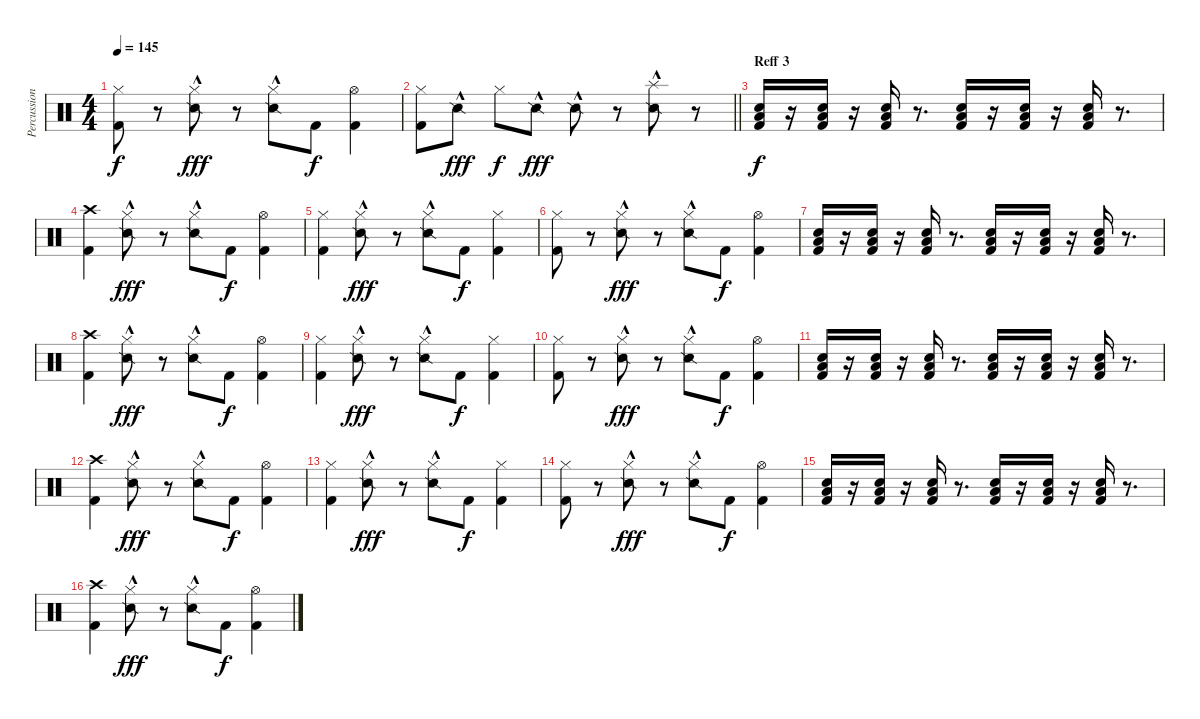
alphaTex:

\track ("Percussion 1" "Percussion") {instrument percussion}
\staff {score}
\articulation defaults
\ts (4 4)
\tempo 145
\clef neutral
\ks c
("Hi-Hat (closed)" "Kick (hit) 2").8{dy f} r.8 ("Hi-Hat (closed)" "Snare (side stick) 2"{hac}).8{dy fff} r.8 ("Hi-Hat (closed)" "Snare (side stick) 2"{hac}).8 "Kick (hit) 2".8{dy f} ("Hi-Hat (open)" "Kick (hit) 2").4 |
\barLineRight lightlight
("Hi-Hat (closed)" "Kick (hit) 2").8 "Snare (side stick) 2"{hac}.8{dy fff} "Hi-Hat (closed)".8{dy f} "Snare (side stick) 2"{hac}.8{dy fff} "Snare (side stick) 2"{hac}.8 r.8 ("Snare (side stick) 2"{hac} "Splash (hit)").8 r.8 |
\section ("" "Reff 3")
("Low Tom (hit)" "Electric Snare (hit)" "Kick (hit) 2").16{dy f} r.16 ("Low Tom (hit)" "Electric Snare (hit)" "Kick (hit) 2").16 r.16 ("Low Tom (hit)" "Electric Snare (hit)" "Kick (hit) 2").16 r.8{d} ("Low Tom (hit)" "Electric Snare (hit)" "Kick (hit) 2").16 r.16 ("Low Tom (hit)" "Electric Snare (hit)" "Kick (hit) 2").16 r.16 ("Low Tom (hit)" "Electric Snare (hit)" "Kick (hit) 2").16 r.8{d} |
("Crash high (hit)" "Kick (hit) 2").4 ("Hi-Hat (closed)" "Snare (side stick) 2"{hac}).8{dy fff} r.8 ("Hi-Hat (closed)" "Snare (side stick) 2"{hac}).8 "Kick (hit) 2".8{dy f} ("Hi-Hat (open)" "Kick (hit) 2").4 |
("Hi-Hat (closed)" "Kick (hit) 2").4 ("Hi-Hat (closed)" "Snare (side stick) 2"{hac}).8{dy fff} r.8 ("Hi-Hat (closed)" "Snare (side stick) 2"{hac}).8 "Kick (hit) 2".8{dy f} ("Hi-Hat (closed)" "Kick (hit) 2").4 |
("Hi-Hat (closed)" "Kick (hit) 2").8 r.8 ("Hi-Hat (closed)" "Snare (side stick) 2"{hac}).8{dy fff} r.8 ("Hi-Hat (closed)" "Snare (side stick) 2"{hac}).8 "Kick (hit) 2".8{dy f} ("Hi-Hat (open)" "Kick (hit) 2").4 |
("Low Tom (hit)" "Electric Snare (hit)" "Kick (hit) 2").16 r.16 ("Low Tom (hit)" "Electric Snare (hit)" "Kick (hit) 2").16 r.16 ("Low Tom (hit)" "Electric Snare (hit)" "Kick (hit) 2").16 r.8{d} ("Low Floor Tom (hit)" "Electric Snare (hit)" "Kick (hit) 2").16 r.16 ("Low Floor Tom (hit)" "Electric Snare (hit)" "Kick (hit) 2").16 r.16 ("Low Floor Tom (hit)" "Electric Snare (hit)" "Kick (hit) 2").16 r.8{d} |
("Crash high (hit)" "Kick (hit) 2").4 ("Hi-Hat (closed)" "Snare (side stick) 2"{hac}).8{dy fff} r.8 ("Hi-Hat (closed)" "Snare (side stick) 2"{hac}).8 "Kick (hit) 2".8{dy f} ("Hi-Hat (open)" "Kick (hit) 2").4 |
("Hi-Hat (closed)" "Kick (hit) 2").4 ("Hi-Hat (closed)" "Snare (side stick) 2"{hac}).8{dy fff} r.8 ("Hi-Hat (closed)" "Snare (side stick) 2"{hac}).8 "Kick (hit) 2".8{dy f} ("Hi-Hat (closed)" "Kick (hit) 2").4 |
("Hi-Hat (closed)" "Kick (hit) 2").8 r.8 ("Hi-Hat (closed)" "Snare (side stick) 2"{hac}).8{dy fff} r.8 ("Hi-Hat (closed)" "Snare (side stick) 2"{hac}).8 "Kick (hit) 2".8{dy f} ("Hi-Hat (open)" "Kick (hit) 2").4 |
("Low Tom (hit)" "Electric Snare (hit)" "Kick (hit) 2").16 r.16 ("Low Tom (hit)" "Electric Snare (hit)" "Kick (hit) 2").16 r.16 ("Low Tom (hit)" "Electric Snare (hit)" "Kick (hit) 2").16 r.8{d} ("Low Tom (hit)" "Electric Snare (hit)" "Kick (hit) 2").16 r.16 ("Low Tom (hit)" "Electric Snare (hit)" "Kick (hit) 2").16 r.16 ("Low Tom (hit)" "Electric Snare (hit)" "Kick (hit) 2").16 r.8{d} |
("Crash high (hit)" "Kick (hit) 2").4 ("Hi-Hat (closed)" "Snare (side stick) 2"{hac}).8{dy fff} r.8 ("Hi-Hat (closed)" "Snare (side stick) 2"{hac}).8 "Kick (hit) 2".8{dy f} ("Hi-Hat (open)" "Kick (hit) 2").4 |
("Hi-Hat (closed)" "Kick (hit) 2").4 ("Hi-Hat (closed)" "Snare (side stick) 2"{hac}).8{dy fff} r.8 ("Hi-Hat (closed)" "Snare (side stick) 2"{hac}).8 "Kick (hit) 2".8{dy f} ("Hi-Hat (closed)" "Kick (hit) 2").4 |
("Hi-Hat (closed)" "Kick (hit) 2").8 r.8 ("Hi-Hat (closed)" "Snare (side stick) 2"{hac}).8{dy fff} r.8 ("Hi-Hat (closed)" "Snare (side stick) 2"{hac}).8 "Kick (hit) 2".8{dy f} ("Hi-Hat (open)" "Kick (hit) 2").4 |
("Low Tom (hit)" "Electric Snare (hit)" "Kick (hit) 2").16 r.16 ("Low Tom (hit)" "Electric Snare (hit)" "Kick (hit) 2").16 r.16 ("Low Tom (hit)" "Electric Snare (hit)" "Kick (hit) 2").16 r.8{d} ("Low Floor Tom (hit)" "Electric Snare (hit)" "Kick (hit) 2").16 r.16 ("Low Floor Tom (hit)" "Electric Snare (hit)" "Kick (hit) 2").16 r.16 ("Low Floor Tom (hit)" "Electric Snare (hit)" "Kick (hit) 2").16 r.8{d} |
("Crash high (hit)" "Kick (hit) 2").4 ("Hi-Hat (closed)" "Snare (side stick) 2"{hac}).8{dy fff} r.8 ("Hi-Hat (closed)" "Snare (side stick) 2"{hac}).8 "Kick (hit) 2".8{dy f} ("Hi-Hat (open)" "Kick (hit) 2").4
